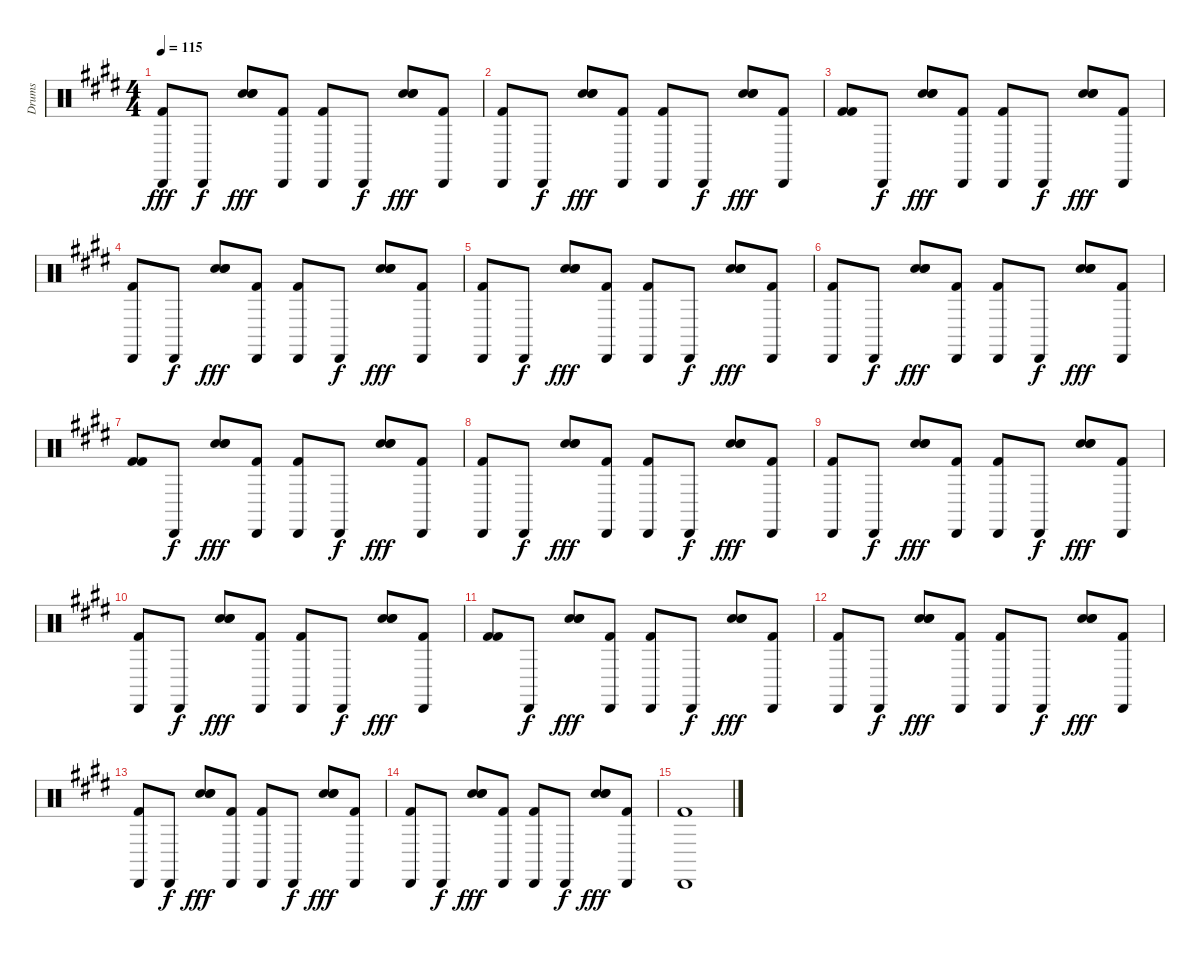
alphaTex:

\track ("Drums" "Drums") {instrument percussion}
\staff {score}
\articulation defaults
\ts (4 4)
\tempo 115
\clef neutral
\ks c#minor
("Cabasa (hit)" "Kick (hit) 2").8{dy fff} "Cabasa (hit)".8{dy f} ("Snare (hit) 2" "Hand Clap (hit)" "Hand Clap (hit)").8{bd 30 dy fff} ("Cabasa (hit)" "Kick (hit) 2").8 ("Cabasa (hit)" "Kick (hit) 2").8 "Cabasa (hit)".8{dy f} ("Snare (hit) 2" "Hand Clap (hit)" "Hand Clap (hit)").8{bd 30 dy fff} ("Cabasa (hit)" "Kick (hit) 2").8 |
("Cabasa (hit)" "Kick (hit) 2").8 "Cabasa (hit)".8{dy f} ("Snare (hit) 2" "Hand Clap (hit)" "Hand Clap (hit)").8{bd 30 dy fff} ("Cabasa (hit)" "Kick (hit) 2").8 ("Cabasa (hit)" "Kick (hit) 2").8 "Cabasa (hit)".8{dy f} ("Snare (hit) 2" "Hand Clap (hit)" "Hand Clap (hit)").8{bd 30 dy fff} ("Cabasa (hit)" "Kick (hit) 2").8 |
("Kick (hit) 2" "Kick (hit) 2").8 "Cabasa (hit)".8{dy f} ("Snare (hit) 2" "Hand Clap (hit)" "Hand Clap (hit)").8{bd 30 dy fff} ("Cabasa (hit)" "Kick (hit) 2").8 ("Cabasa (hit)" "Kick (hit) 2").8 "Cabasa (hit)".8{dy f} ("Snare (hit) 2" "Hand Clap (hit)" "Hand Clap (hit)").8{bd 30 dy fff} ("Cabasa (hit)" "Kick (hit) 2").8 |
("Cabasa (hit)" "Kick (hit) 2").8 "Cabasa (hit)".8{dy f} ("Snare (hit) 2" "Hand Clap (hit)" "Hand Clap (hit)").8{bd 30 dy fff} ("Cabasa (hit)" "Kick (hit) 2").8 ("Cabasa (hit)" "Kick (hit) 2").8 "Cabasa (hit)".8{dy f} ("Snare (hit) 2" "Hand Clap (hit)" "Hand Clap (hit)").8{bd 30 dy fff} ("Cabasa (hit)" "Kick (hit) 2").8 |
("Cabasa (hit)" "Kick (hit) 2").8 "Cabasa (hit)".8{dy f} ("Snare (hit) 2" "Hand Clap (hit)" "Hand Clap (hit)").8{bd 30 dy fff} ("Cabasa (hit)" "Kick (hit) 2").8 ("Cabasa (hit)" "Kick (hit) 2").8 "Cabasa (hit)".8{dy f} ("Snare (hit) 2" "Hand Clap (hit)" "Hand Clap (hit)").8{bd 30 dy fff} ("Cabasa (hit)" "Kick (hit) 2").8 |
("Cabasa (hit)" "Kick (hit) 2").8 "Cabasa (hit)".8{dy f} ("Snare (hit) 2" "Hand Clap (hit)" "Hand Clap (hit)").8{bd 30 dy fff} ("Cabasa (hit)" "Kick (hit) 2").8 ("Cabasa (hit)" "Kick (hit) 2").8 "Cabasa (hit)".8{dy f} ("Snare (hit) 2" "Hand Clap (hit)" "Hand Clap (hit)").8{bd 30 dy fff} ("Cabasa (hit)" "Kick (hit) 2").8 |
("Kick (hit) 2" "Kick (hit) 2").8 "Cabasa (hit)".8{dy f} ("Snare (hit) 2" "Hand Clap (hit)" "Hand Clap (hit)").8{bd 30 dy fff} ("Cabasa (hit)" "Kick (hit) 2").8 ("Cabasa (hit)" "Kick (hit) 2").8 "Cabasa (hit)".8{dy f} ("Snare (hit) 2" "Hand Clap (hit)" "Hand Clap (hit)").8{bd 30 dy fff} ("Cabasa (hit)" "Kick (hit) 2").8 |
("Cabasa (hit)" "Kick (hit) 2").8 "Cabasa (hit)".8{dy f} ("Snare (hit) 2" "Hand Clap (hit)" "Hand Clap (hit)").8{bd 30 dy fff} ("Cabasa (hit)" "Kick (hit) 2").8 ("Cabasa (hit)" "Kick (hit) 2").8 "Cabasa (hit)".8{dy f} ("Snare (hit) 2" "Hand Clap (hit)" "Hand Clap (hit)").8{bd 30 dy fff} ("Cabasa (hit)" "Kick (hit) 2").8 |
("Cabasa (hit)" "Kick (hit) 2").8 "Cabasa (hit)".8{dy f} ("Snare (hit) 2" "Hand Clap (hit)" "Hand Clap (hit)").8{bd 30 dy fff} ("Cabasa (hit)" "Kick (hit) 2").8 ("Cabasa (hit)" "Kick (hit) 2").8 "Cabasa (hit)".8{dy f} ("Snare (hit) 2" "Hand Clap (hit)" "Hand Clap (hit)").8{bd 30 dy fff} ("Cabasa (hit)" "Kick (hit) 2").8 |
("Cabasa (hit)" "Kick (hit) 2").8 "Cabasa (hit)".8{dy f} ("Snare (hit) 2" "Hand Clap (hit)" "Hand Clap (hit)").8{bd 30 dy fff} ("Cabasa (hit)" "Kick (hit) 2").8 ("Cabasa (hit)" "Kick (hit) 2").8 "Cabasa (hit)".8{dy f} ("Snare (hit) 2" "Hand Clap (hit)" "Hand Clap (hit)").8{bd 30 dy fff} ("Cabasa (hit)" "Kick (hit) 2").8 |
("Kick (hit) 2" "Kick (hit) 2").8 "Cabasa (hit)".8{dy f} ("Snare (hit) 2" "Hand Clap (hit)" "Hand Clap (hit)").8{bd 30 dy fff} ("Cabasa (hit)" "Kick (hit) 2").8 ("Cabasa (hit)" "Kick (hit) 2").8 "Cabasa (hit)".8{dy f} ("Snare (hit) 2" "Hand Clap (hit)" "Hand Clap (hit)").8{bd 30 dy fff} ("Cabasa (hit)" "Kick (hit) 2").8 |
("Cabasa (hit)" "Kick (hit) 2").8 "Cabasa (hit)".8{dy f} ("Snare (hit) 2" "Hand Clap (hit)" "Hand Clap (hit)").8{bd 30 dy fff} ("Cabasa (hit)" "Kick (hit) 2").8 ("Cabasa (hit)" "Kick (hit) 2").8 "Cabasa (hit)".8{dy f} ("Snare (hit) 2" "Hand Clap (hit)" "Hand Clap (hit)").8{bd 30 dy fff} ("Cabasa (hit)" "Kick (hit) 2").8 |
("Cabasa (hit)" "Kick (hit) 2").8 "Cabasa (hit)".8{dy f} ("Snare (hit) 2" "Hand Clap (hit)" "Hand Clap (hit)").8{bd 30 dy fff} ("Cabasa (hit)" "Kick (hit) 2").8 ("Cabasa (hit)" "Kick (hit) 2").8 "Cabasa (hit)".8{dy f} ("Snare (hit) 2" "Hand Clap (hit)" "Hand Clap (hit)").8{bd 30 dy fff} ("Cabasa (hit)" "Kick (hit) 2").8 |
("Cabasa (hit)" "Kick (hit) 2").8 "Cabasa (hit)".8{dy f} ("Snare (hit) 2" "Hand Clap (hit)" "Hand Clap (hit)").8{bd 30 dy fff} ("Cabasa (hit)" "Kick (hit) 2").8 ("Cabasa (hit)" "Kick (hit) 2").8 "Cabasa (hit)".8{dy f} ("Snare (hit) 2" "Hand Clap (hit)" "Hand Clap (hit)").8{bd 30 dy fff} ("Cabasa (hit)" "Kick (hit) 2").8 |
("Cabasa (hit)" "Kick (hit) 2").1
